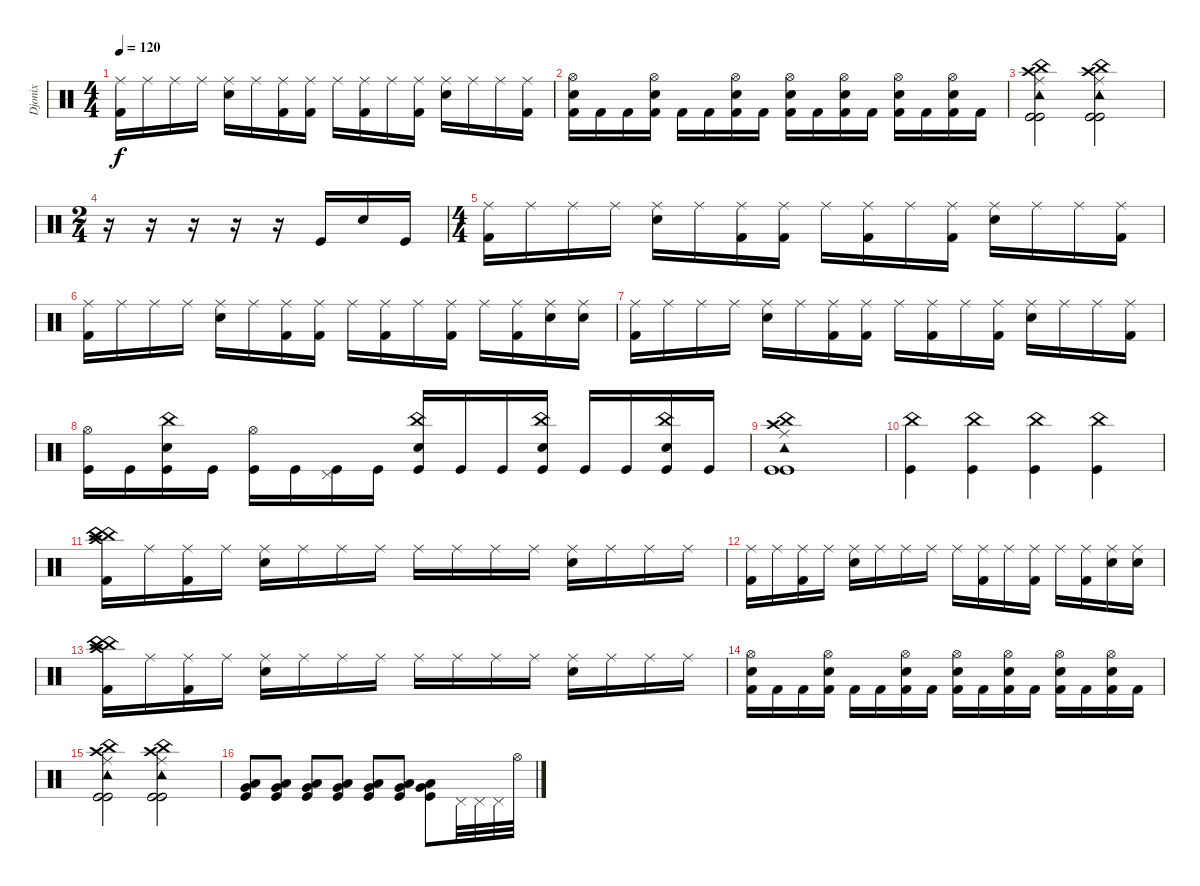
\track ("Djonix" "Djonix") {instrument percussion}
\staff {score}
\articulation defaults
\ts (4 4)
\tempo 120
\clef neutral
\ks c
("Ride (middle)" "Kick (hit) 2").16{dy f} "Ride (middle)".16 "Ride (middle)".16 "Ride (middle)".16 ("Ride (middle)" "Snare (hit) 2").16 "Ride (middle)".16 ("Ride (middle)" "Kick (hit) 2").16 ("Ride (middle)" "Kick (hit) 2").16 "Ride (middle)".16 ("Ride (middle)" "Kick (hit) 2").16 "Ride (middle)".16 ("Ride (middle)" "Kick (hit) 2").16 ("Ride (middle)" "Snare (hit) 2").16 "Ride (middle)".16 "Ride (middle)".16 ("Ride (middle)" "Kick (hit) 2").16 |
("Hi-Hat (open)" "Snare (hit) 2" "Kick (hit) 2").16 "Kick (hit) 2".16 "Kick (hit) 2".16 ("Hi-Hat (open)" "Snare (hit) 2" "Kick (hit) 2").16 "Kick (hit) 2".16 "Kick (hit) 2".16 ("Hi-Hat (open)" "Snare (hit) 2" "Kick (hit) 2").16 "Kick (hit) 2".16 ("Hi-Hat (open)" "Snare (hit) 2" "Kick (hit) 2").16 "Kick (hit) 2".16 ("Hi-Hat (open)" "Snare (hit) 2" "Kick (hit) 2").16 "Kick (hit) 2".16 ("Hi-Hat (open)" "Snare (hit) 2" "Kick (hit) 2").16 "Kick (hit) 2".16 ("Hi-Hat (open)" "Snare (hit) 2" "Kick (hit) 2").16 "Kick (hit) 2".16 |
("China (hit)" "Ride (middle)" "Crash high (hit)" "Tambourine (hit)" "Kick (hit)" "Kick (hit)").2 ("China (hit)" "Ride (middle)" "Crash high (hit)" "Tambourine (hit)" "Kick (hit)" "Kick (hit)").2 |
\ts (2 4)
r.16 r.16 r.16 r.16 r.16 "Kick (hit)".16 "Snare (hit) 2".16 "Kick (hit)".16 |
\ts (4 4)
("Ride (middle)" "Kick (hit) 2").16 "Ride (middle)".16 "Ride (middle)".16 "Ride (middle)".16 ("Ride (middle)" "Snare (hit) 2").16 "Ride (middle)".16 ("Ride (middle)" "Kick (hit) 2").16 ("Ride (middle)" "Kick (hit) 2").16 "Ride (middle)".16 ("Ride (middle)" "Kick (hit) 2").16 "Ride (middle)".16 ("Ride (middle)" "Kick (hit) 2").16 ("Ride (middle)" "Snare (hit) 2").16 "Ride (middle)".16 "Ride (middle)".16 ("Ride (middle)" "Kick (hit) 2").16 |
("Ride (middle)" "Kick (hit) 2").16 "Ride (middle)".16 "Ride (middle)".16 "Ride (middle)".16 ("Ride (middle)" "Snare (hit) 2").16 "Ride (middle)".16 ("Ride (middle)" "Kick (hit) 2").16 ("Ride (middle)" "Kick (hit) 2").16 "Ride (middle)".16 ("Ride (middle)" "Kick (hit) 2").16 "Ride (middle)".16 ("Ride (middle)" "Kick (hit) 2").16 "Ride (middle)".16 ("Ride (middle)" "Kick (hit) 2").16 ("Ride (middle)" "Snare (hit) 2").16 ("Ride (middle)" "Snare (hit) 2").16 |
("Ride (middle)" "Kick (hit) 2").16 "Ride (middle)".16 "Ride (middle)".16 "Ride (middle)".16 ("Ride (middle)" "Snare (hit) 2").16 "Ride (middle)".16 ("Ride (middle)" "Kick (hit) 2").16 ("Ride (middle)" "Kick (hit) 2").16 "Ride (middle)".16 ("Ride (middle)" "Kick (hit) 2").16 "Ride (middle)".16 ("Ride (middle)" "Kick (hit) 2").16 ("Ride (middle)" "Snare (hit) 2").16 "Ride (middle)".16 "Ride (middle)".16 ("Ride (middle)" "Kick (hit) 2").16 |
("Hi-Hat (open)" "Kick (hit)").16 "Kick (hit)".16 ("China (hit)" "Snare (hit) 2" "Kick (hit)").16 "Kick (hit)".16 ("Hi-Hat (open)" "Kick (hit)").16 "Kick (hit)".16 ("Pedal Hi-Hat (hit)" "Kick (hit)").16 "Kick (hit)".16 ("China (hit)" "Snare (hit) 2" "Kick (hit)").16 "Kick (hit)".16 "Kick (hit)".16 ("China (hit)" "Snare (hit) 2" "Kick (hit)").16 "Kick (hit)".16 "Kick (hit)".16 ("China (hit)" "Snare (hit) 2" "Kick (hit)").16 "Kick (hit)".16 |
("China (hit)" "Tambourine (hit)" "Ride (middle)" "Crash high (hit)" "Kick (hit)" "Kick (hit)").1 |
("China (hit)" "Kick (hit)").4 ("China (hit)" "Kick (hit)").4 ("China (hit)" "Kick (hit)").4 ("China (hit)" "Kick (hit)").4 |
("China (hit)" "Crash high (hit)" "China (hit)" "China (hit)" "Kick (hit) 2").16 "Ride (middle)".16 ("Ride (middle)" "Kick (hit) 2").16 "Ride (middle)".16 ("Ride (middle)" "Snare (hit) 2").16 "Ride (middle)".16 "Ride (middle)".16 "Ride (middle)".16 "Ride (middle)".16 "Ride (middle)".16 "Ride (middle)".16 "Ride (middle)".16 ("Ride (middle)" "Snare (hit) 2").16 "Ride (middle)".16 "Ride (middle)".16 "Ride (middle)".16 |
("Ride (middle)" "Kick (hit) 2").16 "Ride (middle)".16 ("Ride (middle)" "Kick (hit) 2").16 "Ride (middle)".16 ("Ride (middle)" "Snare (hit) 2").16 "Ride (middle)".16 "Ride (middle)".16 "Ride (middle)".16 "Ride (middle)".16 ("Ride (middle)" "Kick (hit) 2").16 "Ride (middle)".16 ("Ride (middle)" "Kick (hit) 2").16 "Ride (middle)".16 ("Ride (middle)" "Kick (hit) 2").16 ("Ride (middle)" "Snare (hit) 2").16 ("Ride (middle)" "Snare (hit) 2").16 |
("China (hit)" "Crash high (hit)" "China (hit)" "China (hit)" "Kick (hit) 2").16 "Ride (middle)".16 ("Ride (middle)" "Kick (hit) 2").16 "Ride (middle)".16 ("Ride (middle)" "Snare (hit) 2").16 "Ride (middle)".16 "Ride (middle)".16 "Ride (middle)".16 "Ride (middle)".16 "Ride (middle)".16 "Ride (middle)".16 "Ride (middle)".16 ("Ride (middle)" "Snare (hit) 2").16 "Ride (middle)".16 "Ride (middle)".16 "Ride (middle)".16 |
("Hi-Hat (open)" "Snare (hit) 2" "Kick (hit) 2").16 "Kick (hit) 2".16 "Kick (hit) 2".16 ("Hi-Hat (open)" "Snare (hit) 2" "Kick (hit) 2").16 "Kick (hit) 2".16 "Kick (hit) 2".16 ("Hi-Hat (open)" "Snare (hit) 2" "Kick (hit) 2").16 "Kick (hit) 2".16 ("Hi-Hat (open)" "Snare (hit) 2" "Kick (hit) 2").16 "Kick (hit) 2".16 ("Hi-Hat (open)" "Snare (hit) 2" "Kick (hit) 2").16 "Kick (hit) 2".16 ("Hi-Hat (open)" "Snare (hit) 2" "Kick (hit) 2").16 "Kick (hit) 2".16 ("Hi-Hat (open)" "Snare (hit) 2" "Kick (hit) 2").16 "Kick (hit) 2".16 |
("China (hit)" "Ride (middle)" "Crash high (hit)" "Tambourine (hit)" "Kick (hit)" "Kick (hit)").2 ("China (hit)" "Ride (middle)" "Crash high (hit)" "Tambourine (hit)" "Kick (hit)" "Kick (hit)").2 |
("Low Tom (hit)" "Very Low Tom (hit)" "Kick (hit)").8 ("Low Tom (hit)" "Very Low Tom (hit)" "Kick (hit)").8 ("Low Tom (hit)" "Very Low Tom (hit)" "Kick (hit)").8 ("Low Tom (hit)" "Very Low Tom (hit)" "Kick (hit)").8 ("Low Tom (hit)" "Very Low Tom (hit)" "Kick (hit)").8 ("Low Tom (hit)" "Very Low Tom (hit)" "Kick (hit)").8 ("Low Tom (hit)" "Very Low Tom (hit)" "Kick (hit)").8 "Pedal Hi-Hat (hit)".32 "Pedal Hi-Hat (hit)".32 "Pedal Hi-Hat (hit)".32 "Hi-Hat (open)".32
